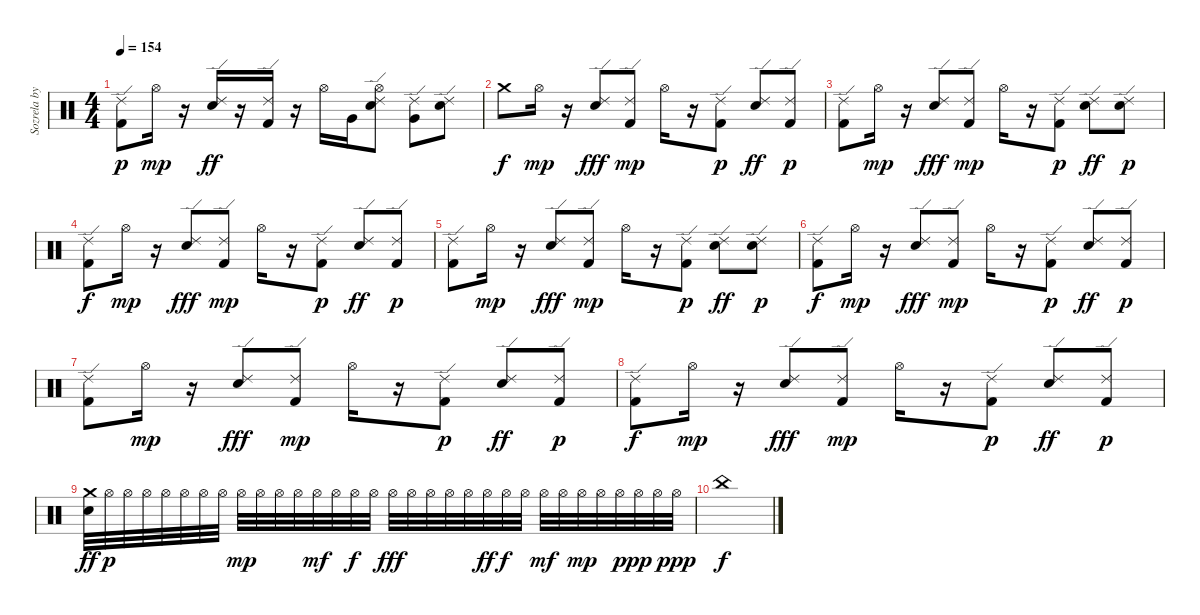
\track ("Sozrela by Anton" "Sozrela by") {instrument percussion}
\staff {score}
\articulation defaults
\ts (4 4)
\tempo 154
\clef neutral
\ks c
("Kick (hit) 2" "Ride (edge) 2").8{dy p} "Hi-Hat (open)".16{dy mp} r.16 ("Snare (hit) 2" "Ride (edge) 2").16{dy ff} r.16 ("Kick (hit) 2" "Ride (edge) 2").16 r.16 "Hi-Hat (open)".16 "Very Low Tom (hit)".16 ("Hi-Hat (open)" "Ride (edge) 2" "Electric Snare (hit)").8 ("Ride (edge) 2" "Very Low Tom (hit)").8 ("Ride (edge) 2" "Electric Snare (hit)").8 |
"Crash medium (hit)".8{dy f} "Hi-Hat (open)".16{dy mp} r.16 ("Ride (edge) 2" "Snare (hit) 2").8{dy fff} ("Ride (edge) 2" "Kick (hit) 2").8{dy mp} "Hi-Hat (open)".16 r.16 ("Ride (edge) 2" "Kick (hit) 2").8{dy p} ("Ride (edge) 2" "Snare (hit) 2").8{dy ff} ("Ride (edge) 2" "Kick (hit) 2").8{dy p} |
("Kick (hit) 2" "Ride (edge) 2").8 "Hi-Hat (open)".16{dy mp} r.16 ("Ride (edge) 2" "Snare (hit) 2").8{dy fff} ("Ride (edge) 2" "Kick (hit) 2").8{dy mp} "Hi-Hat (open)".16 r.16 ("Ride (edge) 2" "Kick (hit) 2").8{dy p} ("Ride (edge) 2" "Snare (hit) 2").8{dy ff} ("Ride (edge) 2" "Snare (hit) 2").8{dy p} |
("Kick (hit) 2" "Ride (edge) 2").8{dy f} "Hi-Hat (open)".16{dy mp} r.16 ("Ride (edge) 2" "Snare (hit) 2").8{dy fff} ("Ride (edge) 2" "Kick (hit) 2").8{dy mp} "Hi-Hat (open)".16 r.16 ("Ride (edge) 2" "Kick (hit) 2").8{dy p} ("Ride (edge) 2" "Snare (hit) 2").8{dy ff} ("Ride (edge) 2" "Kick (hit) 2").8{dy p} |
("Kick (hit) 2" "Ride (edge) 2").8 "Hi-Hat (open)".16{dy mp} r.16 ("Ride (edge) 2" "Snare (hit) 2").8{dy fff} ("Ride (edge) 2" "Kick (hit) 2").8{dy mp} "Hi-Hat (open)".16 r.16 ("Ride (edge) 2" "Kick (hit) 2").8{dy p} ("Ride (edge) 2" "Snare (hit) 2").8{dy ff} ("Ride (edge) 2" "Snare (hit) 2").8{dy p} |
("Kick (hit) 2" "Ride (edge) 2").8{dy f} "Hi-Hat (open)".16{dy mp} r.16 ("Ride (edge) 2" "Snare (hit) 2").8{dy fff} ("Ride (edge) 2" "Kick (hit) 2").8{dy mp} "Hi-Hat (open)".16 r.16 ("Ride (edge) 2" "Kick (hit) 2").8{dy p} ("Ride (edge) 2" "Snare (hit) 2").8{dy ff} ("Ride (edge) 2" "Kick (hit) 2").8{dy p} |
("Kick (hit) 2" "Ride (edge) 2").8 "Hi-Hat (open)".16{dy mp} r.16 ("Ride (edge) 2" "Snare (hit) 2").8{dy fff} ("Ride (edge) 2" "Kick (hit) 2").8{dy mp} "Hi-Hat (open)".16 r.16 ("Ride (edge) 2" "Kick (hit) 2").8{dy p} ("Ride (edge) 2" "Snare (hit) 2").8{dy ff} ("Ride (edge) 2" "Kick (hit) 2").8{dy p} |
("Kick (hit) 2" "Ride (edge) 2").8{dy f} "Hi-Hat (open)".16{dy mp} r.16 ("Ride (edge) 2" "Snare (hit) 2").8{dy fff} ("Ride (edge) 2" "Kick (hit) 2").8{dy mp} "Hi-Hat (open)".16 r.16 ("Ride (edge) 2" "Kick (hit) 2").8{dy p} ("Ride (edge) 2" "Snare (hit) 2").8{dy ff} ("Ride (edge) 2" "Kick (hit) 2").8{dy p} |
("Crash medium (hit)" "Snare (hit) 2").32{dy ff} "Hi-Hat (open)".32{dy p} "Hi-Hat (open)".32 "Hi-Hat (open)".32 "Hi-Hat (open)".32 "Hi-Hat (open)".32 "Hi-Hat (open)".32 "Hi-Hat (open)".32 "Hi-Hat (open)".32{dy mp} "Hi-Hat (open)".32 "Hi-Hat (open)".32 "Hi-Hat (open)".32 "Hi-Hat (open)".32{dy mf} "Hi-Hat (open)".32 "Hi-Hat (open)".32{dy f} "Hi-Hat (open)".32 "Hi-Hat (open)".32{dy fff} "Hi-Hat (open)".32 "Hi-Hat (open)".32 "Hi-Hat (open)".32 "Hi-Hat (open)".32 "Hi-Hat (open)".32{dy ff} "Hi-Hat (open)".32{dy f} "Hi-Hat (open)".32 "Hi-Hat (open)".32{dy mf} "Hi-Hat (open)".32 "Hi-Hat (open)".32{dy mp} "Hi-Hat (open)".32 "Hi-Hat (open)".32{dy p} "Hi-Hat (open)".32{dy pp} "Hi-Hat (open)".32 "Hi-Hat (open)".32{dy ppp} |
"China (hit)".1{dy f}
